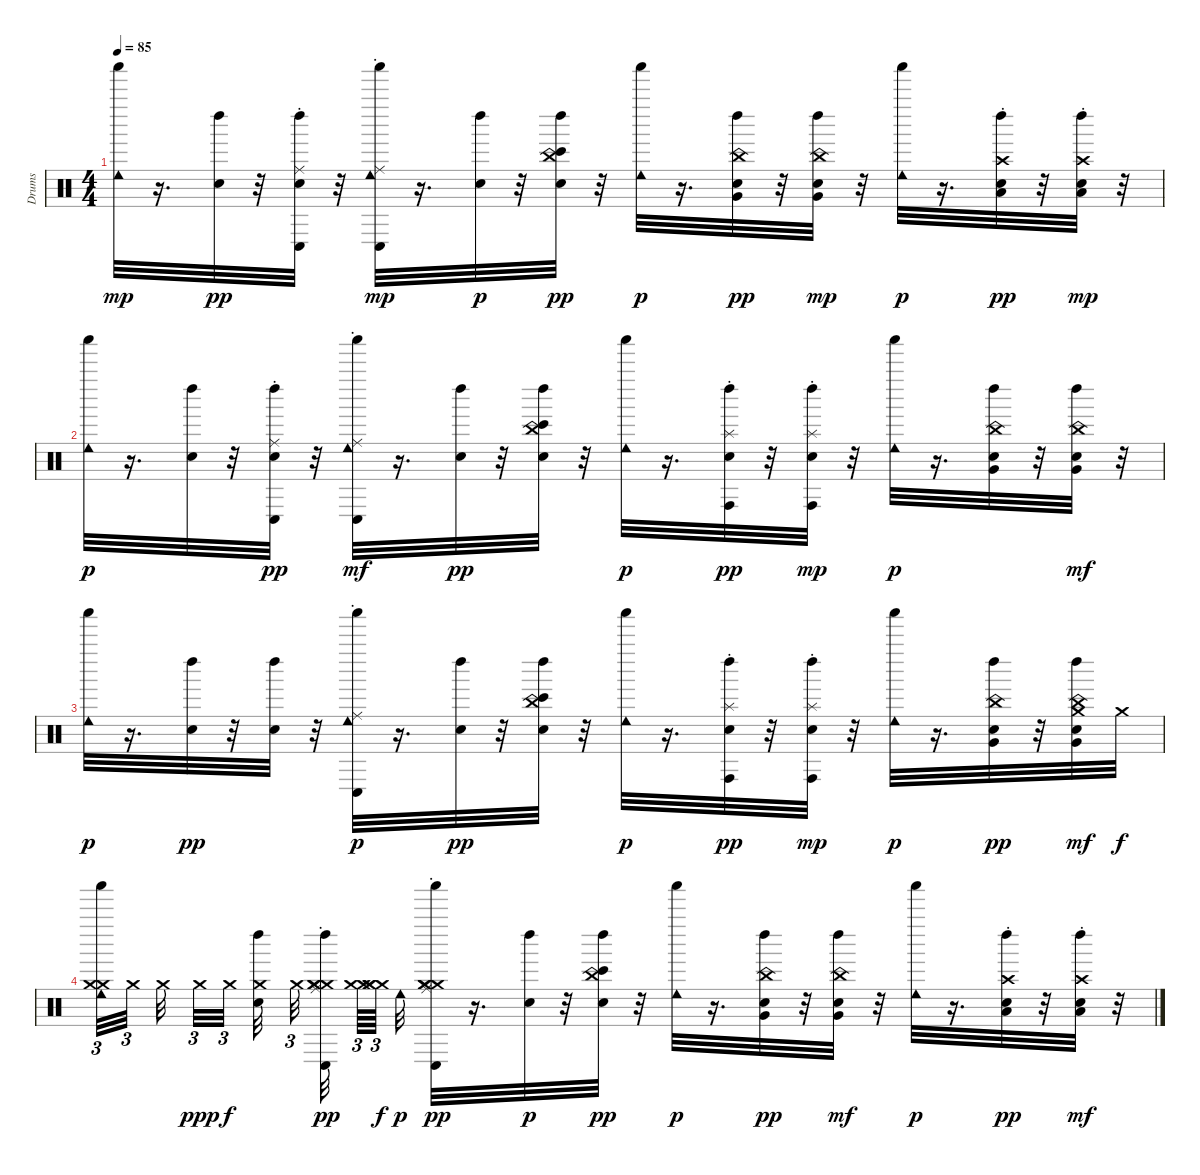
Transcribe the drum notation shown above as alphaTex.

\track ("Drums" "Drums") {instrument percussion}
\staff {score}
\articulation defaults
\ts (4 4)
\tempo 85
\clef neutral
\ks c
("Cowbell low (hit)" "Shaker (hit)").32{dy mp} r.16{d} ("Left Maraca (hit)" "Snare (hit)").32{dy pp} r.32 ("Conga low (hit)" "Ride (choke)" "Snare (hit)" "Left Maraca (hit)").32 r.32 ("Shaker (hit)" "Conga low (hit)" "Cowbell low (hit)" "Ride (choke)").32{dy mp} r.16{d} ("Snare (hit)" "Left Maraca (hit)").32{dy p} r.32 ("Bongo High (hit)" "China (choke)" "Left Maraca (hit)" "Snare (hit)").32{dy pp} r.32 ("Shaker (hit)" "Cowbell low (hit)").32{dy p} r.16{d} ("China (choke)" "Very Low Tom (hit)" "Left Maraca (hit)" "Snare (hit)").32{dy pp} r.32 ("Left Maraca (hit)" "China (choke)" "Snare (hit)" "Very Low Tom (hit)").32{dy mp} r.32 ("Shaker (hit)" "Cowbell low (hit)").32{dy p} r.16{d} ("Low Floor Tom (hit)" "Crash high (choke)" "Left Maraca (hit)" "Snare (hit)").32{dy pp} r.32 ("Left Maraca (hit)" "Crash high (choke)" "Snare (hit)" "Low Floor Tom (hit)").32{dy mp} r.32 |
("Shaker (hit)" "Cowbell low (hit)").32{dy p} r.16{d} ("Snare (hit)" "Left Maraca (hit)").32 r.32 ("Conga low (hit)" "Ride (choke)" "Left Maraca (hit)" "Snare (hit)").32{dy pp} r.32 ("Shaker (hit)" "Cowbell low (hit)" "Ride (choke)" "Conga low (hit)").32{dy mf} r.16{d} ("Left Maraca (hit)" "Snare (hit)").32{dy pp} r.32 ("Bongo High (hit)" "China (choke)" "Snare (hit)" "Left Maraca (hit)").32 r.32 ("Shaker (hit)" "Cowbell low (hit)").32{dy p} r.16{d} ("Conga high (hit)" "Left Maraca (hit)" "Splash (choke)" "Snare (hit)").32{dy pp} r.32 ("Snare (hit)" "Left Maraca (hit)" "Conga high (hit)" "Splash (choke)").32{dy mp} r.32 ("Shaker (hit)" "Cowbell low (hit)").32{dy p} r.16{d} ("China (choke)" "Very Low Tom (hit)" "Left Maraca (hit)" "Snare (hit)").32 r.32 ("Snare (hit)" "Left Maraca (hit)" "Very Low Tom (hit)" "China (choke)").32{dy mf} r.32 |
("Shaker (hit)" "Cowbell low (hit)").32{dy p} r.16{d} ("Left Maraca (hit)" "Snare (hit)").32{dy pp} r.32 ("Left Maraca (hit)" "Snare (hit)").32 r.32 ("Conga low (hit)" "Ride (choke)" "Shaker (hit)" "Cowbell low (hit)").32{dy p} r.16{d} ("Left Maraca (hit)" "Snare (hit)").32{dy pp} r.32 ("Bongo High (hit)" "China (choke)" "Left Maraca (hit)" "Snare (hit)").32 r.32 ("Shaker (hit)" "Cowbell low (hit)").32{dy p} r.16{d} ("Conga high (hit)" "Splash (choke)" "Left Maraca (hit)" "Snare (hit)").32{dy pp} r.32 ("Left Maraca (hit)" "Snare (hit)" "Conga high (hit)" "Splash (choke)").32{dy mp} r.32 ("Cowbell low (hit)" "Shaker (hit)").32{dy p} r.16{d} ("China (choke)" "Very Low Tom (hit)" "Left Maraca (hit)" "Snare (hit)").32{dy pp} r.32 ("Crash medium (hit)" "Left Maraca (hit)" "Snare (hit)" "China (choke)" "Very Low Tom (hit)").32{dy mf} "Crash medium (hit)".32{dy f} |
("Crash medium (hit)" "Shaker (hit)" "Cowbell low (hit)" "Crash medium (hit)").32{tu (3 2)} "Crash medium (hit)".32{tu (3 2)} "Crash medium (hit)".32 "Crash medium (hit)".32{tu (3 2) dy ppp} "Crash medium (hit)".32{tu (3 2) dy f} ("Snare (hit)" "Left Maraca (hit)" "Crash medium (hit)").32 "Crash medium (hit)".32{tu (3 2)} ("Crash medium (hit)" "Crash medium (hit)" "Conga low (hit)" "Ride (choke)" "Crash medium (hit)" "Left Maraca (hit)").32{dy pp} ("Crash medium (hit)" "Crash medium (hit)").64{tu (3 2)} ("Crash medium (hit)" "Crash medium (hit)" "Crash medium (hit)").64{tu (3 2) dy f} "Cowbell low (hit)".32{dy p} ("Shaker (hit)" "Crash medium (hit)" "Conga low (hit)" "Ride (choke)" "Crash medium (hit)" "Crash medium (hit)").32{dy pp} r.16{d} ("Snare (hit)" "Left Maraca (hit)").32{dy p} r.32 ("Bongo High (hit)" "China (choke)" "Left Maraca (hit)" "Snare (hit)").32{dy pp} r.32 ("Shaker (hit)" "Cowbell low (hit)").32{dy p} r.16{d} ("China (choke)" "Very Low Tom (hit)" "Left Maraca (hit)" "Snare (hit)").32{dy pp} r.32 ("Snare (hit)" "Left Maraca (hit)" "Very Low Tom (hit)" "China (choke)").32{dy mf} r.32 ("Shaker (hit)" "Cowbell low (hit)").32{dy p} r.16{d} ("Crash high (choke)" "Low Floor Tom (hit)" "Left Maraca (hit)" "Snare (hit)").32{dy pp} r.32 ("Left Maraca (hit)" "Snare (hit)" "Crash high (choke)" "Low Floor Tom (hit)").32{dy mf} r.32
